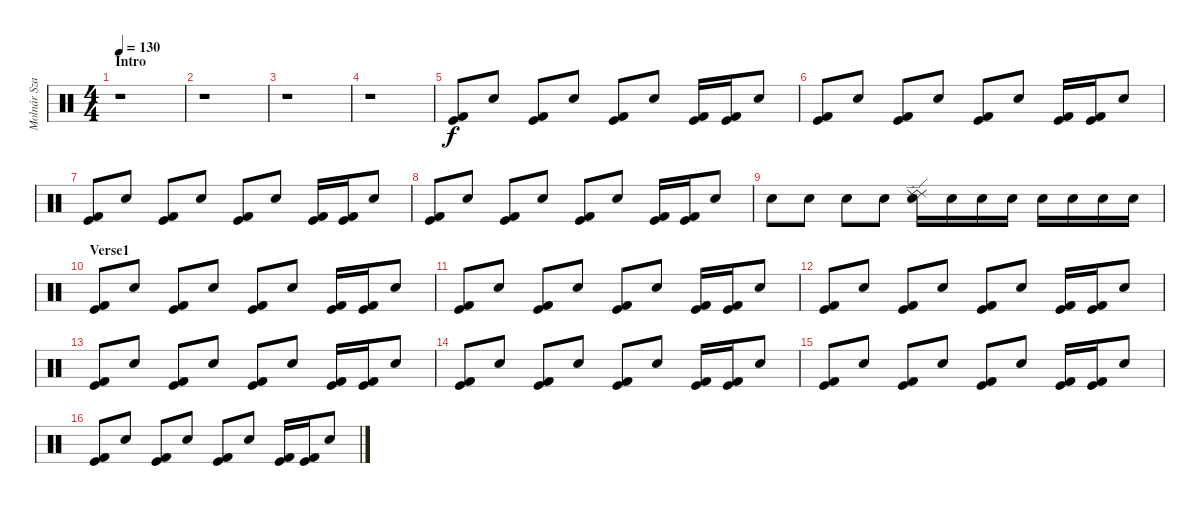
\track ("Molnár Szabolcs" "Molnár Sza") {instrument percussion}
\staff {score}
\articulation defaults
\ts (4 4)
\section ("" "Intro")
\tempo 130
\clef neutral
\ks c
r.1{dy f} |
r.1 |
r.1 |
r.1 |
("Kick (hit)" "Kick (hit) 2").8 "Snare (hit) 2".8 ("Kick (hit)" "Kick (hit) 2").8 "Snare (hit) 2".8 ("Kick (hit)" "Kick (hit) 2").8 "Snare (hit) 2".8 ("Kick (hit)" "Kick (hit) 2").16 ("Kick (hit)" "Kick (hit) 2").16 "Snare (hit) 2".8 |
("Kick (hit)" "Kick (hit) 2").8 "Snare (hit) 2".8 ("Kick (hit)" "Kick (hit) 2").8 "Snare (hit) 2".8 ("Kick (hit)" "Kick (hit) 2").8 "Snare (hit) 2".8 ("Kick (hit)" "Kick (hit) 2").16 ("Kick (hit)" "Kick (hit) 2").16 "Snare (hit) 2".8 |
("Kick (hit)" "Kick (hit) 2").8 "Snare (hit) 2".8 ("Kick (hit)" "Kick (hit) 2").8 "Snare (hit) 2".8 ("Kick (hit)" "Kick (hit) 2").8 "Snare (hit) 2".8 ("Kick (hit)" "Kick (hit) 2").16 ("Kick (hit)" "Kick (hit) 2").16 "Snare (hit) 2".8 |
("Kick (hit)" "Kick (hit) 2").8 "Snare (hit) 2".8 ("Kick (hit)" "Kick (hit) 2").8 "Snare (hit) 2".8 ("Kick (hit)" "Kick (hit) 2").8 "Snare (hit) 2".8 ("Kick (hit)" "Kick (hit) 2").16 ("Kick (hit)" "Kick (hit) 2").16 "Snare (hit) 2".8 |
"Snare (hit) 2".8 "Snare (hit) 2".8 "Snare (hit) 2".8 "Snare (hit) 2".8 ("Snare (hit) 2" "Ride (edge) 2" "Ride (edge) 2").16 "Snare (hit) 2".16 "Snare (hit) 2".16 "Snare (hit) 2".16 "Snare (hit) 2".16 "Snare (hit) 2".16 "Snare (hit) 2".16 "Snare (hit) 2".16 |
\section ("" "Verse1")
("Kick (hit)" "Kick (hit) 2").8 "Snare (hit) 2".8 ("Kick (hit)" "Kick (hit) 2").8 "Snare (hit) 2".8 ("Kick (hit)" "Kick (hit) 2").8 "Snare (hit) 2".8 ("Kick (hit)" "Kick (hit) 2").16 ("Kick (hit)" "Kick (hit) 2").16 "Snare (hit) 2".8 |
("Kick (hit)" "Kick (hit) 2").8 "Snare (hit) 2".8 ("Kick (hit)" "Kick (hit) 2").8 "Snare (hit) 2".8 ("Kick (hit)" "Kick (hit) 2").8 "Snare (hit) 2".8 ("Kick (hit)" "Kick (hit) 2").16 ("Kick (hit)" "Kick (hit) 2").16 "Snare (hit) 2".8 |
("Kick (hit)" "Kick (hit) 2").8 "Snare (hit) 2".8 ("Kick (hit)" "Kick (hit) 2").8 "Snare (hit) 2".8 ("Kick (hit)" "Kick (hit) 2").8 "Snare (hit) 2".8 ("Kick (hit)" "Kick (hit) 2").16 ("Kick (hit)" "Kick (hit) 2").16 "Snare (hit) 2".8 |
("Kick (hit)" "Kick (hit) 2").8 "Snare (hit) 2".8 ("Kick (hit)" "Kick (hit) 2").8 "Snare (hit) 2".8 ("Kick (hit)" "Kick (hit) 2").8 "Snare (hit) 2".8 ("Kick (hit)" "Kick (hit) 2").16 ("Kick (hit)" "Kick (hit) 2").16 "Snare (hit) 2".8 |
("Kick (hit)" "Kick (hit) 2").8 "Snare (hit) 2".8 ("Kick (hit)" "Kick (hit) 2").8 "Snare (hit) 2".8 ("Kick (hit)" "Kick (hit) 2").8 "Snare (hit) 2".8 ("Kick (hit)" "Kick (hit) 2").16 ("Kick (hit)" "Kick (hit) 2").16 "Snare (hit) 2".8 |
("Kick (hit)" "Kick (hit) 2").8 "Snare (hit) 2".8 ("Kick (hit)" "Kick (hit) 2").8 "Snare (hit) 2".8 ("Kick (hit)" "Kick (hit) 2").8 "Snare (hit) 2".8 ("Kick (hit)" "Kick (hit) 2").16 ("Kick (hit)" "Kick (hit) 2").16 "Snare (hit) 2".8 |
("Kick (hit)" "Kick (hit) 2").8 "Snare (hit) 2".8 ("Kick (hit)" "Kick (hit) 2").8 "Snare (hit) 2".8 ("Kick (hit)" "Kick (hit) 2").8 "Snare (hit) 2".8 ("Kick (hit)" "Kick (hit) 2").16 ("Kick (hit)" "Kick (hit) 2").16 "Snare (hit) 2".8
